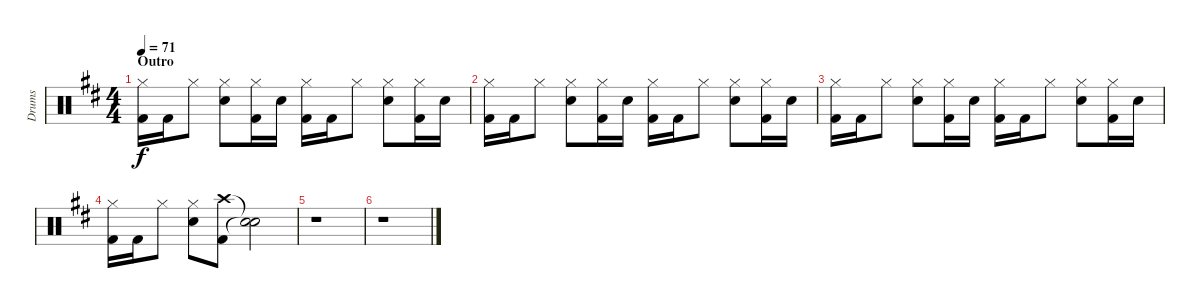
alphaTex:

\track ("Drums" "Drums") {instrument percussion}
\staff {score}
\articulation defaults
\ts (4 4)
\section ("" "Outro")
\tempo 71
\clef neutral
\ks bminor
("Hi-Hat (closed)" "Kick (hit) 2").16{dy f} "Kick (hit) 2".16 "Hi-Hat (closed)".8 ("Hi-Hat (closed)" "Snare (hit) 2").8 ("Hi-Hat (closed)" "Kick (hit) 2").16 "Snare (hit) 2".16 ("Hi-Hat (closed)" "Kick (hit) 2").16 "Kick (hit) 2".16 "Hi-Hat (closed)".8 ("Hi-Hat (closed)" "Snare (hit) 2").8 ("Hi-Hat (closed)" "Kick (hit) 2").16 "Snare (hit) 2".16 |
("Hi-Hat (closed)" "Kick (hit) 2").16 "Kick (hit) 2".16 "Hi-Hat (closed)".8 ("Hi-Hat (closed)" "Snare (hit) 2").8 ("Hi-Hat (closed)" "Kick (hit) 2").16 "Snare (hit) 2".16 ("Hi-Hat (closed)" "Kick (hit) 2").16 "Kick (hit) 2".16 "Hi-Hat (closed)".8 ("Hi-Hat (closed)" "Snare (hit) 2").8 ("Hi-Hat (closed)" "Kick (hit) 2").16 "Snare (hit) 2".16 |
("Hi-Hat (closed)" "Kick (hit) 2").16 "Kick (hit) 2".16 "Hi-Hat (closed)".8 ("Hi-Hat (closed)" "Snare (hit) 2").8 ("Hi-Hat (closed)" "Kick (hit) 2").16 "Snare (hit) 2".16 ("Hi-Hat (closed)" "Kick (hit) 2").16 "Kick (hit) 2".16 "Hi-Hat (closed)".8 ("Hi-Hat (closed)" "Snare (hit) 2").8 ("Hi-Hat (closed)" "Kick (hit) 2").16 "Snare (hit) 2".16 |
("Hi-Hat (closed)" "Kick (hit) 2").16 "Kick (hit) 2".16 "Hi-Hat (closed)".8 ("Hi-Hat (closed)" "Snare (hit) 2").8 ("Crash high (hit)" "Kick (hit) 2").8 ("Snare (hit)"{t} "Snare (hit)"{t}).2 |
r.1 |
r.1
